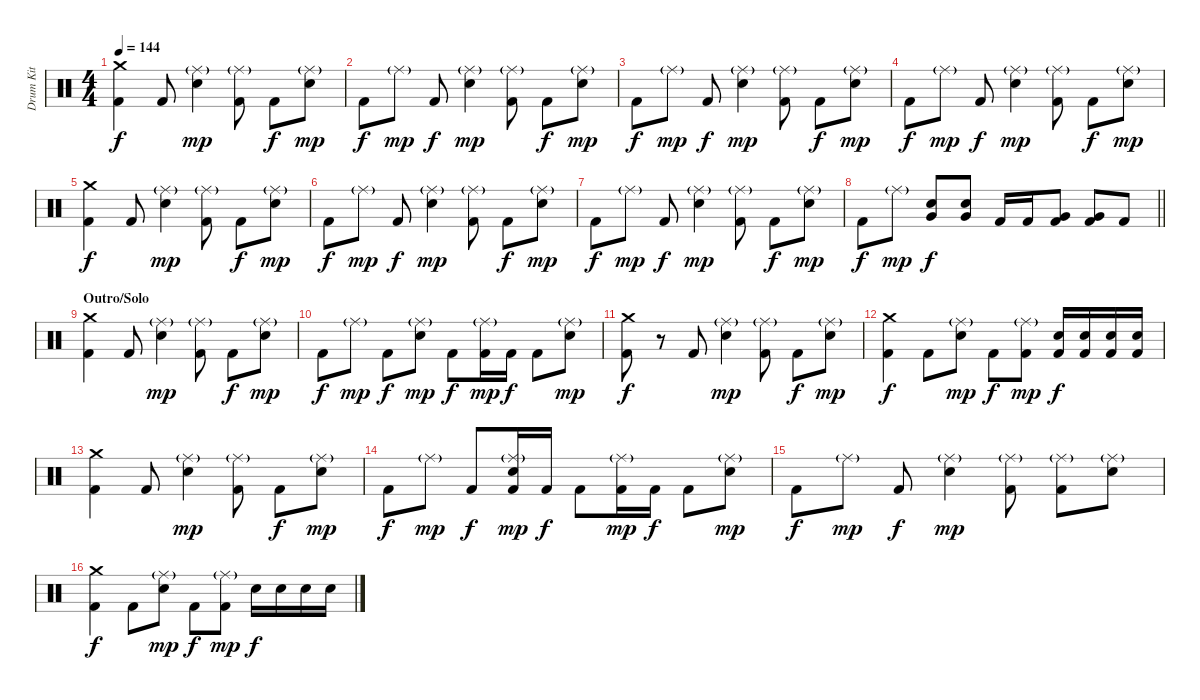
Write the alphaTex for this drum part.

\track ("Drum Kit" "Drum Kit") {instrument percussion}
\staff {score}
\articulation defaults
\ts (4 4)
\tempo 144
\clef neutral
\ks c
("Crash medium (hit)" "Kick (hit) 2").4{dy f} "Kick (hit) 2".8 ("Ride (middle)"{g} "Electric Snare (hit)").4{dy mp} ("Ride (middle)"{g} "Kick (hit) 2").8 "Kick (hit) 2".8{dy f} ("Ride (middle)"{g} "Electric Snare (hit)").8{dy mp} |
"Kick (hit) 2".8{dy f} "Ride (middle)"{g}.8{dy mp} "Kick (hit) 2".8{dy f} ("Ride (middle)"{g} "Electric Snare (hit)").4{dy mp} ("Ride (middle)"{g} "Kick (hit) 2").8 "Kick (hit) 2".8{dy f} ("Ride (middle)"{g} "Electric Snare (hit)").8{dy mp} |
"Kick (hit) 2".8{dy f} "Ride (middle)"{g}.8{dy mp} "Kick (hit) 2".8{dy f} ("Ride (middle)"{g} "Electric Snare (hit)").4{dy mp} ("Ride (middle)"{g} "Kick (hit) 2").8 "Kick (hit) 2".8{dy f} ("Ride (middle)"{g} "Electric Snare (hit)").8{dy mp} |
"Kick (hit) 2".8{dy f} "Ride (middle)"{g}.8{dy mp} "Kick (hit) 2".8{dy f} ("Ride (middle)"{g} "Electric Snare (hit)").4{dy mp} ("Ride (middle)"{g} "Kick (hit) 2").8 "Kick (hit) 2".8{dy f} ("Ride (middle)"{g} "Electric Snare (hit)").8{dy mp} |
("Crash medium (hit)" "Kick (hit) 2").4{dy f} "Kick (hit) 2".8 ("Ride (middle)"{g} "Electric Snare (hit)").4{dy mp} ("Ride (middle)"{g} "Kick (hit) 2").8 "Kick (hit) 2".8{dy f} ("Ride (middle)"{g} "Electric Snare (hit)").8{dy mp} |
"Kick (hit) 2".8{dy f} "Ride (middle)"{g}.8{dy mp} "Kick (hit) 2".8{dy f} ("Ride (middle)"{g} "Electric Snare (hit)").4{dy mp} ("Ride (middle)"{g} "Kick (hit) 2").8 "Kick (hit) 2".8{dy f} ("Ride (middle)"{g} "Electric Snare (hit)").8{dy mp} |
"Kick (hit) 2".8{dy f} "Ride (middle)"{g}.8{dy mp} "Kick (hit) 2".8{dy f} ("Ride (middle)"{g} "Electric Snare (hit)").4{dy mp} ("Ride (middle)"{g} "Kick (hit) 2").8 "Kick (hit) 2".8{dy f} ("Ride (middle)"{g} "Electric Snare (hit)").8{dy mp} |
\barLineRight lightlight "Kick (hit) 2".8{dy f} "Ride (middle)"{g}.8{dy mp}
("Very Low Tom (hit)" "Electric Snare (hit)").8{dy f} ("Very Low Tom (hit)" "Electric Snare (hit)").8 "Kick (hit) 2".16 "Kick (hit) 2".16 ("Very Low Tom (hit)" "Kick (hit) 2").8 ("Very Low Tom (hit)" "Kick (hit) 2").8 "Kick (hit) 2".8 |
\section ("" "Outro/Solo")
("Crash medium (hit)" "Kick (hit) 2").4 "Kick (hit) 2".8 ("Ride (middle)"{g} "Electric Snare (hit)").4{dy mp} ("Ride (middle)"{g} "Kick (hit) 2").8 "Kick (hit) 2".8{dy f} ("Ride (middle)"{g} "Electric Snare (hit)").8{dy mp} |
"Kick (hit) 2".8{dy f} "Ride (middle)"{g}.8{dy mp} "Kick (hit) 2".8{dy f} ("Ride (middle)"{g} "Electric Snare (hit)").8{dy mp} "Kick (hit) 2".8{dy f} ("Ride (middle)"{g} "Kick (hit) 2").16{dy mp} "Kick (hit) 2".16{dy f} "Kick (hit) 2".8 ("Ride (middle)"{g} "Electric Snare (hit)").8{dy mp} |
("Crash medium (hit)" "Kick (hit) 2").8{dy f} r.8 "Kick (hit) 2".8 ("Ride (middle)"{g} "Electric Snare (hit)").4{dy mp} ("Ride (middle)"{g} "Kick (hit) 2").8 "Kick (hit) 2".8{dy f} ("Ride (middle)"{g} "Electric Snare (hit)").8{dy mp} |
("Crash medium (hit)" "Kick (hit) 2").4{dy f} "Kick (hit) 2".8 ("Ride (middle)"{g} "Electric Snare (hit)").8{dy mp} "Kick (hit) 2".8{dy f} ("Ride (middle)"{g} "Kick (hit) 2").8{dy mp} ("Electric Snare (hit)" "Kick (hit) 2").16{dy f} ("Electric Snare (hit)" "Kick (hit) 2").16 ("Electric Snare (hit)" "Kick (hit) 2").16 ("Electric Snare (hit)" "Kick (hit) 2").16 |
("Crash medium (hit)" "Kick (hit) 2").4 "Kick (hit) 2".8 ("Ride (middle)"{g} "Electric Snare (hit)").4{dy mp} ("Ride (middle)"{g} "Kick (hit) 2").8 "Kick (hit) 2".8{dy f} ("Ride (middle)"{g} "Electric Snare (hit)").8{dy mp} |
"Kick (hit) 2".8{dy f} "Ride (middle)"{g}.8{dy mp} "Kick (hit) 2".8{dy f} ("Ride (middle)"{g} "Electric Snare (hit)" "Kick (hit) 2").16{dy mp} "Kick (hit) 2".16{dy f} "Kick (hit) 2".8 ("Ride (middle)"{g} "Kick (hit) 2").16{dy mp} "Kick (hit) 2".16{dy f} "Kick (hit) 2".8 ("Ride (middle)"{g} "Electric Snare (hit)").8{dy mp} |
"Kick (hit) 2".8{dy f} "Ride (middle)"{g}.8{dy mp} "Kick (hit) 2".8{dy f} ("Ride (middle)"{g} "Electric Snare (hit)").4{dy mp} ("Ride (middle)"{g} "Kick (hit) 2").8 ("Ride (middle)"{g} "Kick (hit) 2").8 ("Ride (middle)"{g} "Electric Snare (hit)").8 |
("Crash medium (hit)" "Kick (hit) 2").4{dy f} "Kick (hit) 2".8 ("Ride (middle)"{g} "Electric Snare (hit)").8{dy mp} "Kick (hit) 2".8{dy f} ("Ride (middle)"{g} "Kick (hit) 2").8{dy mp} "Electric Snare (hit)".16{dy f} "Electric Snare (hit)".16 "Electric Snare (hit)".16 "Electric Snare (hit)".16
